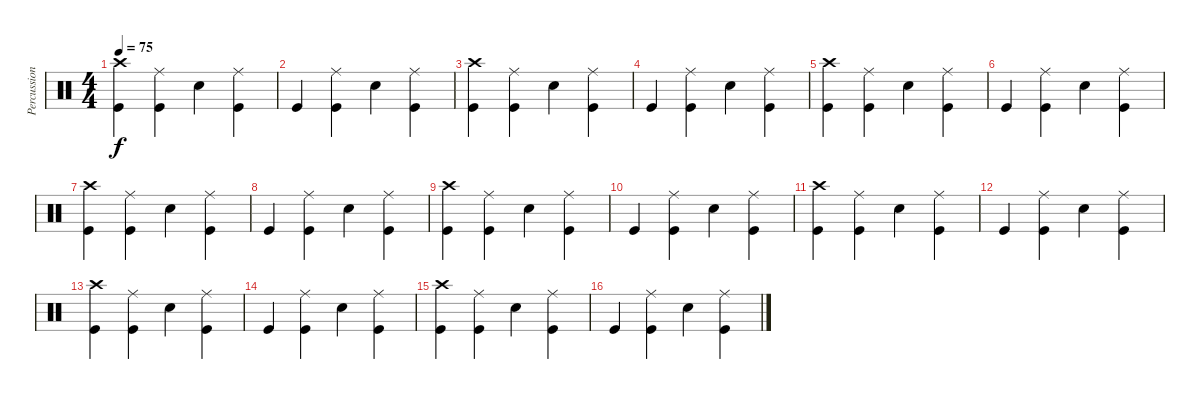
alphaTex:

\track ("Percussion" "Percussion") {instrument percussion}
\staff {score}
\articulation defaults
\ts (4 4)
\tempo 75
\clef neutral
\ks c
("Crash high (hit)" "Kick (hit)").4{dy f} ("Ride (middle)" "Kick (hit)").4 "Snare (hit) 2".4 ("Ride (middle)" "Kick (hit)").4 |
"Kick (hit)".4 ("Ride (middle)" "Kick (hit)").4 "Snare (hit) 2".4 ("Ride (middle)" "Kick (hit)").4 |
("Crash high (hit)" "Kick (hit)").4 ("Ride (middle)" "Kick (hit)").4 "Snare (hit) 2".4 ("Ride (middle)" "Kick (hit)").4 |
"Kick (hit)".4 ("Ride (middle)" "Kick (hit)").4 "Snare (hit) 2".4 ("Ride (middle)" "Kick (hit)").4 |
("Crash high (hit)" "Kick (hit)").4 ("Ride (middle)" "Kick (hit)").4 "Snare (hit) 2".4 ("Ride (middle)" "Kick (hit)").4 |
"Kick (hit)".4 ("Ride (middle)" "Kick (hit)").4 "Snare (hit) 2".4 ("Ride (middle)" "Kick (hit)").4 |
("Crash high (hit)" "Kick (hit)").4 ("Ride (middle)" "Kick (hit)").4 "Snare (hit) 2".4 ("Ride (middle)" "Kick (hit)").4 |
"Kick (hit)".4 ("Ride (middle)" "Kick (hit)").4 "Snare (hit) 2".4 ("Ride (middle)" "Kick (hit)").4 |
("Crash high (hit)" "Kick (hit)").4 ("Ride (middle)" "Kick (hit)").4 "Snare (hit) 2".4 ("Ride (middle)" "Kick (hit)").4 |
"Kick (hit)".4 ("Ride (middle)" "Kick (hit)").4 "Snare (hit) 2".4 ("Ride (middle)" "Kick (hit)").4 |
("Crash high (hit)" "Kick (hit)").4 ("Ride (middle)" "Kick (hit)").4 "Snare (hit) 2".4 ("Ride (middle)" "Kick (hit)").4 |
"Kick (hit)".4 ("Ride (middle)" "Kick (hit)").4 "Snare (hit) 2".4 ("Ride (middle)" "Kick (hit)").4 |
("Crash high (hit)" "Kick (hit)").4 ("Ride (middle)" "Kick (hit)").4 "Snare (hit) 2".4 ("Ride (middle)" "Kick (hit)").4 |
"Kick (hit)".4 ("Ride (middle)" "Kick (hit)").4 "Snare (hit) 2".4 ("Ride (middle)" "Kick (hit)").4 |
("Crash high (hit)" "Kick (hit)").4 ("Ride (middle)" "Kick (hit)").4 "Snare (hit) 2".4 ("Ride (middle)" "Kick (hit)").4 |
"Kick (hit)".4 ("Ride (middle)" "Kick (hit)").4 "Snare (hit) 2".4 ("Ride (middle)" "Kick (hit)").4
